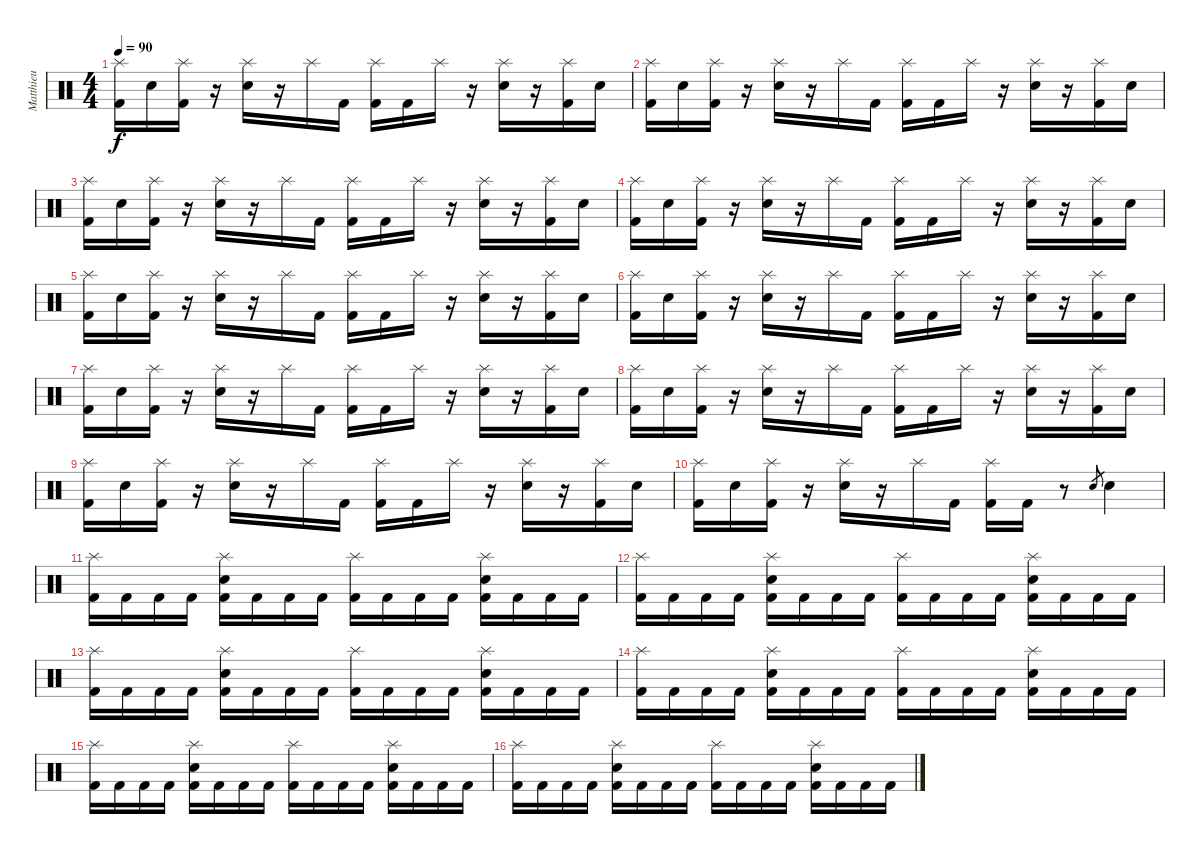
\track ("Matthieu" "Matthieu") {instrument percussion}
\staff {score}
\articulation defaults
\ts (4 4)
\tempo 90
\clef neutral
\ks c
("Splash (hit)" "Kick (hit) 2").16{dy f} "Electric Snare (hit)".16 ("Splash (hit)" "Kick (hit) 2").16 r.16 ("Splash (hit)" "Electric Snare (hit)").16 r.16 "Splash (hit)".16 "Kick (hit) 2".16 ("Splash (hit)" "Kick (hit) 2").16 "Kick (hit) 2".16 "Splash (hit)".16 r.16 ("Splash (hit)" "Electric Snare (hit)").16 r.16 ("Splash (hit)" "Kick (hit) 2").16 "Electric Snare (hit)".16 |
("Splash (hit)" "Kick (hit) 2").16 "Electric Snare (hit)".16 ("Splash (hit)" "Kick (hit) 2").16 r.16 ("Splash (hit)" "Electric Snare (hit)").16 r.16 "Splash (hit)".16 "Kick (hit) 2".16 ("Splash (hit)" "Kick (hit) 2").16 "Kick (hit) 2".16 "Splash (hit)".16 r.16 ("Splash (hit)" "Electric Snare (hit)").16 r.16 ("Splash (hit)" "Kick (hit) 2").16 "Electric Snare (hit)".16 |
("Splash (hit)" "Kick (hit) 2").16 "Electric Snare (hit)".16 ("Splash (hit)" "Kick (hit) 2").16 r.16 ("Splash (hit)" "Electric Snare (hit)").16 r.16 "Splash (hit)".16 "Kick (hit) 2".16 ("Splash (hit)" "Kick (hit) 2").16 "Kick (hit) 2".16 "Splash (hit)".16 r.16 ("Splash (hit)" "Electric Snare (hit)").16 r.16 ("Splash (hit)" "Kick (hit) 2").16 "Electric Snare (hit)".16 |
("Splash (hit)" "Kick (hit) 2").16 "Electric Snare (hit)".16 ("Splash (hit)" "Kick (hit) 2").16 r.16 ("Splash (hit)" "Electric Snare (hit)").16 r.16 "Splash (hit)".16 "Kick (hit) 2".16 ("Splash (hit)" "Kick (hit) 2").16 "Kick (hit) 2".16 "Splash (hit)".16 r.16 ("Splash (hit)" "Electric Snare (hit)").16 r.16 ("Splash (hit)" "Kick (hit) 2").16 "Electric Snare (hit)".16 |
("Splash (hit)" "Kick (hit) 2").16 "Electric Snare (hit)".16 ("Splash (hit)" "Kick (hit) 2").16 r.16 ("Splash (hit)" "Electric Snare (hit)").16 r.16 "Splash (hit)".16 "Kick (hit) 2".16 ("Splash (hit)" "Kick (hit) 2").16 "Kick (hit) 2".16 "Splash (hit)".16 r.16 ("Splash (hit)" "Electric Snare (hit)").16 r.16 ("Splash (hit)" "Kick (hit) 2").16 "Electric Snare (hit)".16 |
("Splash (hit)" "Kick (hit) 2").16 "Electric Snare (hit)".16 ("Splash (hit)" "Kick (hit) 2").16 r.16 ("Splash (hit)" "Electric Snare (hit)").16 r.16 "Splash (hit)".16 "Kick (hit) 2".16 ("Splash (hit)" "Kick (hit) 2").16 "Kick (hit) 2".16 "Splash (hit)".16 r.16 ("Splash (hit)" "Electric Snare (hit)").16 r.16 ("Splash (hit)" "Kick (hit) 2").16 "Electric Snare (hit)".16 |
("Splash (hit)" "Kick (hit) 2").16 "Electric Snare (hit)".16 ("Splash (hit)" "Kick (hit) 2").16 r.16 ("Splash (hit)" "Electric Snare (hit)").16 r.16 "Splash (hit)".16 "Kick (hit) 2".16 ("Splash (hit)" "Kick (hit) 2").16 "Kick (hit) 2".16 "Splash (hit)".16 r.16 ("Splash (hit)" "Electric Snare (hit)").16 r.16 ("Splash (hit)" "Kick (hit) 2").16 "Electric Snare (hit)".16 |
("Splash (hit)" "Kick (hit) 2").16 "Electric Snare (hit)".16 ("Splash (hit)" "Kick (hit) 2").16 r.16 ("Splash (hit)" "Electric Snare (hit)").16 r.16 "Splash (hit)".16 "Kick (hit) 2".16 ("Splash (hit)" "Kick (hit) 2").16 "Kick (hit) 2".16 "Splash (hit)".16 r.16 ("Splash (hit)" "Electric Snare (hit)").16 r.16 ("Splash (hit)" "Kick (hit) 2").16 "Electric Snare (hit)".16 |
("Splash (hit)" "Kick (hit) 2").16 "Electric Snare (hit)".16 ("Splash (hit)" "Kick (hit) 2").16 r.16 ("Splash (hit)" "Electric Snare (hit)").16 r.16 "Splash (hit)".16 "Kick (hit) 2".16 ("Splash (hit)" "Kick (hit) 2").16 "Kick (hit) 2".16 "Splash (hit)".16 r.16 ("Splash (hit)" "Electric Snare (hit)").16 r.16 ("Splash (hit)" "Kick (hit) 2").16 "Electric Snare (hit)".16 |
("Splash (hit)" "Kick (hit) 2").16 "Electric Snare (hit)".16 ("Splash (hit)" "Kick (hit) 2").16 r.16 ("Splash (hit)" "Electric Snare (hit)").16 r.16 "Splash (hit)".16 "Kick (hit) 2".16 ("Splash (hit)" "Kick (hit) 2").16 "Kick (hit) 2".16 r.8 "Electric Snare (hit)".8{gr} "Electric Snare (hit)".4 |
("Splash (hit)" "Kick (hit) 2").16 "Kick (hit) 2".16 "Kick (hit) 2".16 "Kick (hit) 2".16 ("Splash (hit)" "Electric Snare (hit)" "Kick (hit) 2").16 "Kick (hit) 2".16 "Kick (hit) 2".16 "Kick (hit) 2".16 ("Splash (hit)" "Kick (hit) 2").16 "Kick (hit) 2".16 "Kick (hit) 2".16 "Kick (hit) 2".16 ("Splash (hit)" "Electric Snare (hit)" "Kick (hit) 2").16 "Kick (hit) 2".16 "Kick (hit) 2".16 "Kick (hit) 2".16 |
("Splash (hit)" "Kick (hit) 2").16 "Kick (hit) 2".16 "Kick (hit) 2".16 "Kick (hit) 2".16 ("Splash (hit)" "Electric Snare (hit)" "Kick (hit) 2").16 "Kick (hit) 2".16 "Kick (hit) 2".16 "Kick (hit) 2".16 ("Splash (hit)" "Kick (hit) 2").16 "Kick (hit) 2".16 "Kick (hit) 2".16 "Kick (hit) 2".16 ("Splash (hit)" "Electric Snare (hit)" "Kick (hit) 2").16 "Kick (hit) 2".16 "Kick (hit) 2".16 "Kick (hit) 2".16 |
("Splash (hit)" "Kick (hit) 2").16 "Kick (hit) 2".16 "Kick (hit) 2".16 "Kick (hit) 2".16 ("Splash (hit)" "Electric Snare (hit)" "Kick (hit) 2").16 "Kick (hit) 2".16 "Kick (hit) 2".16 "Kick (hit) 2".16 ("Splash (hit)" "Kick (hit) 2").16 "Kick (hit) 2".16 "Kick (hit) 2".16 "Kick (hit) 2".16 ("Splash (hit)" "Electric Snare (hit)" "Kick (hit) 2").16 "Kick (hit) 2".16 "Kick (hit) 2".16 "Kick (hit) 2".16 |
("Splash (hit)" "Kick (hit) 2").16 "Kick (hit) 2".16 "Kick (hit) 2".16 "Kick (hit) 2".16 ("Splash (hit)" "Electric Snare (hit)" "Kick (hit) 2").16 "Kick (hit) 2".16 "Kick (hit) 2".16 "Kick (hit) 2".16 ("Splash (hit)" "Kick (hit) 2").16 "Kick (hit) 2".16 "Kick (hit) 2".16 "Kick (hit) 2".16 ("Splash (hit)" "Electric Snare (hit)" "Kick (hit) 2").16 "Kick (hit) 2".16 "Kick (hit) 2".16 "Kick (hit) 2".16 |
("Splash (hit)" "Kick (hit) 2").16 "Kick (hit) 2".16 "Kick (hit) 2".16 "Kick (hit) 2".16 ("Splash (hit)" "Electric Snare (hit)" "Kick (hit) 2").16 "Kick (hit) 2".16 "Kick (hit) 2".16 "Kick (hit) 2".16 ("Splash (hit)" "Kick (hit) 2").16 "Kick (hit) 2".16 "Kick (hit) 2".16 "Kick (hit) 2".16 ("Splash (hit)" "Electric Snare (hit)" "Kick (hit) 2").16 "Kick (hit) 2".16 "Kick (hit) 2".16 "Kick (hit) 2".16 |
("Splash (hit)" "Kick (hit) 2").16 "Kick (hit) 2".16 "Kick (hit) 2".16 "Kick (hit) 2".16 ("Splash (hit)" "Electric Snare (hit)" "Kick (hit) 2").16 "Kick (hit) 2".16 "Kick (hit) 2".16 "Kick (hit) 2".16 ("Splash (hit)" "Kick (hit) 2").16 "Kick (hit) 2".16 "Kick (hit) 2".16 "Kick (hit) 2".16 ("Splash (hit)" "Electric Snare (hit)" "Kick (hit) 2").16 "Kick (hit) 2".16 "Kick (hit) 2".16 "Kick (hit) 2".16
